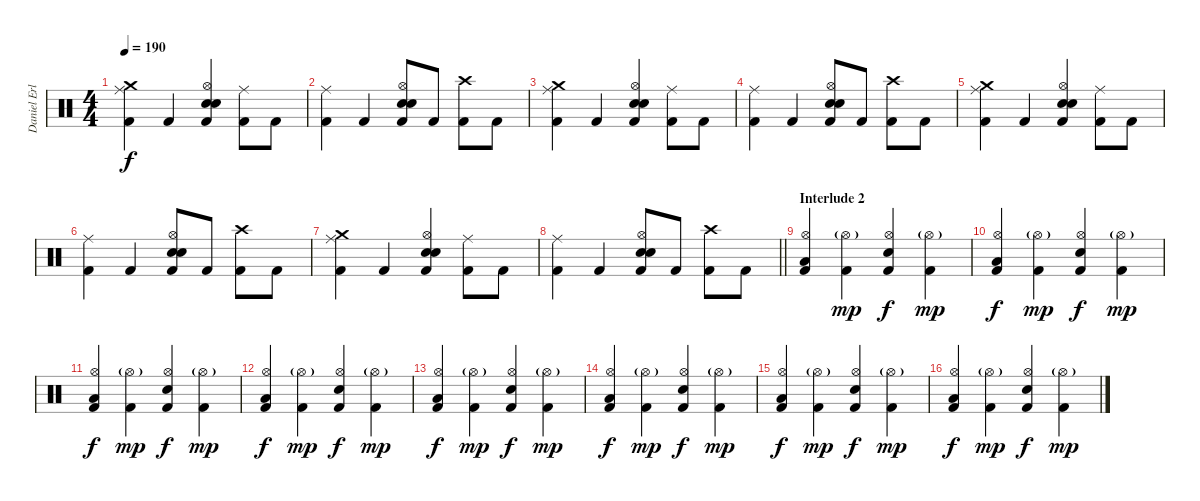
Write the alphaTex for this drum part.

\track ("Daniel Erlandsson" "Daniel Erl") {instrument percussion}
\staff {score}
\articulation defaults
\ts (4 4)
\tempo 190
\clef neutral
\ks c
("Crash medium (hit)" "Ride (middle)" "Kick (hit) 2").4{dy f} "Kick (hit) 2".4 ("Hi-Hat (open)" "Snare (hit) 2" "Electric Snare (hit)" "Kick (hit) 2").4 ("Ride (middle)" "Kick (hit) 2").8 "Kick (hit) 2".8 |
("Ride (middle)" "Kick (hit) 2").4 "Kick (hit) 2".4 ("Hi-Hat (open)" "Snare (hit) 2" "Electric Snare (hit)" "Kick (hit) 2").8 "Kick (hit) 2".8 ("Crash high (hit)" "Kick (hit) 2").8 "Kick (hit) 2".8 |
("Crash medium (hit)" "Ride (middle)" "Kick (hit) 2").4 "Kick (hit) 2".4 ("Hi-Hat (open)" "Snare (hit) 2" "Electric Snare (hit)" "Kick (hit) 2").4 ("Ride (middle)" "Kick (hit) 2").8 "Kick (hit) 2".8 |
("Ride (middle)" "Kick (hit) 2").4 "Kick (hit) 2".4 ("Hi-Hat (open)" "Snare (hit) 2" "Electric Snare (hit)" "Kick (hit) 2").8 "Kick (hit) 2".8 ("Crash high (hit)" "Kick (hit) 2").8 "Kick (hit) 2".8 |
("Crash medium (hit)" "Ride (middle)" "Kick (hit) 2").4 "Kick (hit) 2".4 ("Hi-Hat (open)" "Snare (hit) 2" "Electric Snare (hit)" "Kick (hit) 2").4 ("Ride (middle)" "Kick (hit) 2").8 "Kick (hit) 2".8 |
("Ride (middle)" "Kick (hit) 2").4 "Kick (hit) 2".4 ("Hi-Hat (open)" "Snare (hit) 2" "Electric Snare (hit)" "Kick (hit) 2").8 "Kick (hit) 2".8 ("Crash high (hit)" "Kick (hit) 2").8 "Kick (hit) 2".8 |
("Crash medium (hit)" "Ride (middle)" "Kick (hit) 2").4 "Kick (hit) 2".4 ("Hi-Hat (open)" "Snare (hit) 2" "Electric Snare (hit)" "Kick (hit) 2").4 ("Ride (middle)" "Kick (hit) 2").8 "Kick (hit) 2".8 |
\barLineRight lightlight
("Ride (middle)" "Kick (hit) 2").4 "Kick (hit) 2".4 ("Hi-Hat (open)" "Snare (hit) 2" "Electric Snare (hit)" "Kick (hit) 2").8 "Kick (hit) 2".8 ("Crash high (hit)" "Kick (hit) 2").8 "Kick (hit) 2".8 |
\section ("" "Interlude 2")
("Hi-Hat (open)" "Low Floor Tom (hit)" "Kick (hit) 2").4 ("Hi-Hat (open)"{g} "Kick (hit) 2").4{dy mp} ("Hi-Hat (open)" "Snare (hit) 2" "Kick (hit) 2").4{dy f} ("Hi-Hat (open)"{g} "Kick (hit) 2").4{dy mp} |
("Hi-Hat (open)" "Low Floor Tom (hit)" "Kick (hit) 2").4{dy f} ("Hi-Hat (open)"{g} "Kick (hit) 2").4{dy mp} ("Hi-Hat (open)" "Snare (hit) 2" "Kick (hit) 2").4{dy f} ("Hi-Hat (open)"{g} "Kick (hit) 2").4{dy mp} |
("Hi-Hat (open)" "Low Floor Tom (hit)" "Kick (hit) 2").4{dy f} ("Hi-Hat (open)"{g} "Kick (hit) 2").4{dy mp} ("Hi-Hat (open)" "Snare (hit) 2" "Kick (hit) 2").4{dy f} ("Hi-Hat (open)"{g} "Kick (hit) 2").4{dy mp} |
("Hi-Hat (open)" "Low Floor Tom (hit)" "Kick (hit) 2").4{dy f} ("Hi-Hat (open)"{g} "Kick (hit) 2").4{dy mp} ("Hi-Hat (open)" "Snare (hit) 2" "Kick (hit) 2").4{dy f} ("Hi-Hat (open)"{g} "Kick (hit) 2").4{dy mp} |
("Hi-Hat (open)" "Low Floor Tom (hit)" "Kick (hit) 2").4{dy f} ("Hi-Hat (open)"{g} "Kick (hit) 2").4{dy mp} ("Hi-Hat (open)" "Snare (hit) 2" "Kick (hit) 2").4{dy f} ("Hi-Hat (open)"{g} "Kick (hit) 2").4{dy mp} |
("Hi-Hat (open)" "Low Floor Tom (hit)" "Kick (hit) 2").4{dy f} ("Hi-Hat (open)"{g} "Kick (hit) 2").4{dy mp} ("Hi-Hat (open)" "Snare (hit) 2" "Kick (hit) 2").4{dy f} ("Hi-Hat (open)"{g} "Kick (hit) 2").4{dy mp} |
("Hi-Hat (open)" "Low Floor Tom (hit)" "Kick (hit) 2").4{dy f} ("Hi-Hat (open)"{g} "Kick (hit) 2").4{dy mp} ("Hi-Hat (open)" "Snare (hit) 2" "Kick (hit) 2").4{dy f} ("Hi-Hat (open)"{g} "Kick (hit) 2").4{dy mp} |
("Hi-Hat (open)" "Low Floor Tom (hit)" "Kick (hit) 2").4{dy f} ("Hi-Hat (open)"{g} "Kick (hit) 2").4{dy mp} ("Hi-Hat (open)" "Snare (hit) 2" "Kick (hit) 2").4{dy f} ("Hi-Hat (open)"{g} "Kick (hit) 2").4{dy mp}
